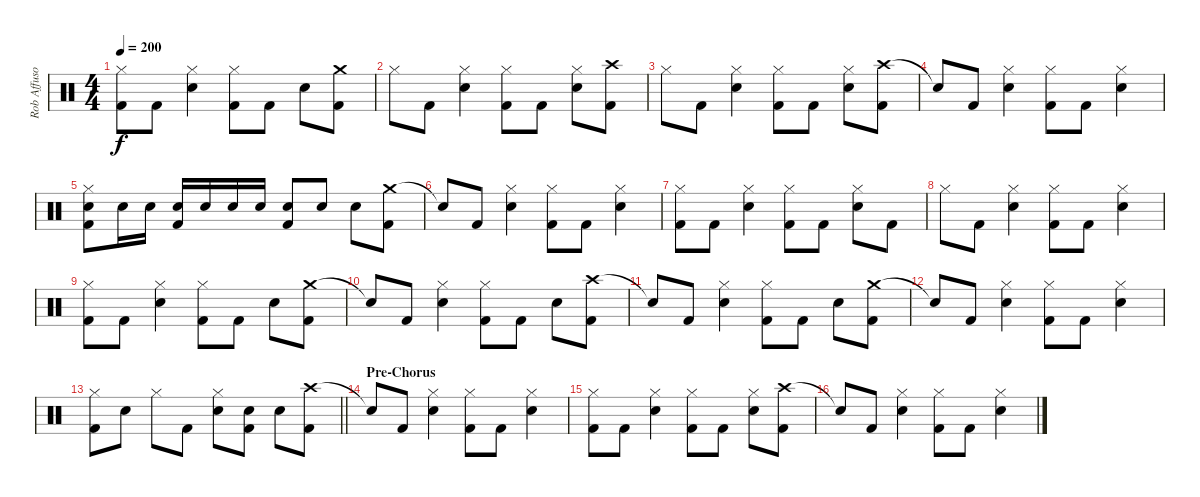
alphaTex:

\track ("Rob Affuso - Drums" "Rob Affuso") {instrument percussion}
\staff {score}
\articulation defaults
\ts (4 4)
\tempo 200
\clef neutral
\ks c
("Hi-Hat (closed)" "Kick (hit) 2").8{dy f} "Kick (hit) 2".8 ("Hi-Hat (closed)" "Snare (hit) 2").4 ("Hi-Hat (closed)" "Kick (hit) 2").8 "Kick (hit) 2".8 "Snare (hit) 2".8 ("Crash medium (hit)" "Kick (hit) 2").8 |
"Hi-Hat (closed)".8 "Kick (hit) 2".8 ("Hi-Hat (closed)" "Snare (hit) 2").4 ("Hi-Hat (closed)" "Kick (hit) 2").8 "Kick (hit) 2".8 ("Hi-Hat (closed)" "Snare (hit) 2").8 ("Crash high (hit)" "Kick (hit) 2").8 |
"Hi-Hat (closed)".8 "Kick (hit) 2".8 ("Hi-Hat (closed)" "Snare (hit) 2").4 ("Hi-Hat (closed)" "Kick (hit) 2").8 "Kick (hit) 2".8 ("Hi-Hat (closed)" "Snare (hit) 2").8 ("Crash high (hit)" "Kick (hit) 2").8 |
"Snare (hit)"{t}.8 "Kick (hit) 2".8 ("Hi-Hat (closed)" "Snare (hit) 2").4 ("Hi-Hat (closed)" "Kick (hit) 2").8 "Kick (hit) 2".8 ("Hi-Hat (closed)" "Snare (hit) 2").4 |
("Hi-Hat (closed)" "Snare (hit) 2" "Kick (hit) 2").8 "Snare (hit) 2".16 "Snare (hit) 2".16 ("Snare (hit) 2" "Kick (hit) 2").16 "Snare (hit) 2".16 "Snare (hit) 2".16 "Snare (hit) 2".16 ("Snare (hit) 2" "Kick (hit) 2").8 "Snare (hit) 2".8 "Snare (hit) 2".8 ("Crash medium (hit)" "Kick (hit) 2").8 |
"Snare (hit)"{t}.8 "Kick (hit) 2".8 ("Hi-Hat (closed)" "Snare (hit) 2").4 ("Hi-Hat (closed)" "Kick (hit) 2").8 "Kick (hit) 2".8 ("Hi-Hat (closed)" "Snare (hit) 2").4 |
("Hi-Hat (closed)" "Kick (hit) 2").8 "Kick (hit) 2".8 ("Hi-Hat (closed)" "Snare (hit) 2").4 ("Hi-Hat (closed)" "Kick (hit) 2").8 "Kick (hit) 2".8 ("Hi-Hat (closed)" "Snare (hit) 2").8 "Kick (hit) 2".8 |
"Hi-Hat (closed)".8 "Kick (hit) 2".8 ("Hi-Hat (closed)" "Snare (hit) 2").4 ("Hi-Hat (closed)" "Kick (hit) 2").8 "Kick (hit) 2".8 ("Hi-Hat (closed)" "Snare (hit) 2").4 |
("Hi-Hat (closed)" "Kick (hit) 2").8 "Kick (hit) 2".8 ("Hi-Hat (closed)" "Snare (hit) 2").4 ("Hi-Hat (closed)" "Kick (hit) 2").8 "Kick (hit) 2".8 "Snare (hit) 2".8 ("Crash medium (hit)" "Kick (hit) 2").8 |
"Snare (hit)"{t}.8 "Kick (hit) 2".8 ("Hi-Hat (closed)" "Snare (hit) 2").4 ("Hi-Hat (closed)" "Kick (hit) 2").8 "Kick (hit) 2".8 "Snare (hit) 2".8 ("Crash high (hit)" "Kick (hit) 2").8 |
"Snare (hit)"{t}.8 "Kick (hit) 2".8 ("Hi-Hat (closed)" "Snare (hit) 2").4 ("Hi-Hat (closed)" "Kick (hit) 2").8 "Kick (hit) 2".8 "Snare (hit) 2".8 ("Crash medium (hit)" "Kick (hit) 2").8 |
"Snare (hit)"{t}.8 "Kick (hit) 2".8 ("Hi-Hat (closed)" "Snare (hit) 2").4 ("Hi-Hat (closed)" "Kick (hit) 2").8 "Kick (hit) 2".8 ("Hi-Hat (closed)" "Snare (hit) 2").4 |
\barLineRight lightlight
("Hi-Hat (closed)" "Kick (hit) 2").8 "Snare (hit) 2".8 "Hi-Hat (closed)".8 "Kick (hit) 2".8 ("Hi-Hat (closed)" "Snare (hit) 2").8 ("Snare (hit) 2" "Kick (hit) 2").8 "Snare (hit) 2".8 ("Crash high (hit)" "Kick (hit) 2").8 |
\section ("" "Pre-Chorus")
"Snare (hit)"{t}.8 "Kick (hit) 2".8 ("Hi-Hat (closed)" "Snare (hit) 2").4 ("Hi-Hat (closed)" "Kick (hit) 2").8 "Kick (hit) 2".8 ("Hi-Hat (closed)" "Snare (hit) 2").4 |
("Hi-Hat (closed)" "Kick (hit) 2").8 "Kick (hit) 2".8 ("Hi-Hat (closed)" "Snare (hit) 2").4 ("Hi-Hat (closed)" "Kick (hit) 2").8 "Kick (hit) 2".8 ("Hi-Hat (closed)" "Snare (hit) 2").8 ("Crash high (hit)" "Kick (hit) 2").8 |
"Snare (hit)"{t}.8 "Kick (hit) 2".8 ("Hi-Hat (closed)" "Snare (hit) 2").4 ("Hi-Hat (closed)" "Kick (hit) 2").8 "Kick (hit) 2".8 ("Hi-Hat (closed)" "Snare (hit) 2").4
